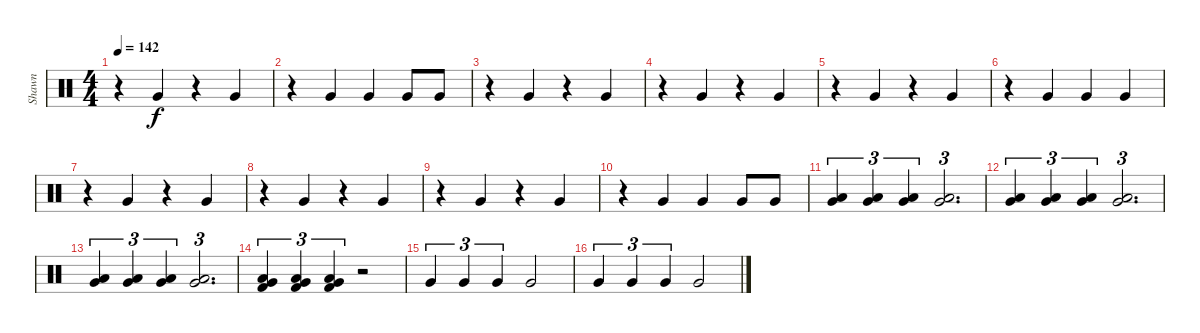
\track ("Shawn" "Shawn") {instrument percussion}
\staff {score}
\articulation defaults
\ts (4 4)
\tempo 142
\clef neutral
\ks c
r.4{dy f} "Very Low Tom (hit)".4 r.4 "Very Low Tom (hit)".4 |
r.4 "Very Low Tom (hit)".4 "Very Low Tom (hit)".4 "Very Low Tom (hit)".8 "Very Low Tom (hit)".8 |
r.4 "Very Low Tom (hit)".4 r.4 "Very Low Tom (hit)".4 |
r.4 "Very Low Tom (hit)".4 r.4 "Very Low Tom (hit)".4 |
r.4 "Very Low Tom (hit)".4 r.4 "Very Low Tom (hit)".4 |
r.4 "Very Low Tom (hit)".4 "Very Low Tom (hit)".4 "Very Low Tom (hit)".4 |
r.4 "Very Low Tom (hit)".4 r.4 "Very Low Tom (hit)".4 |
r.4 "Very Low Tom (hit)".4 r.4 "Very Low Tom (hit)".4 |
r.4 "Very Low Tom (hit)".4 r.4 "Very Low Tom (hit)".4 |
r.4 "Very Low Tom (hit)".4 "Very Low Tom (hit)".4 "Very Low Tom (hit)".8 "Very Low Tom (hit)".8 |
("Very Low Tom (hit)" "Low Floor Tom (hit)").4{tu (3 2)} ("Very Low Tom (hit)" "Low Floor Tom (hit)").4{tu (3 2)} ("Very Low Tom (hit)" "Low Floor Tom (hit)").4{tu (3 2)} ("Very Low Tom (hit)" "Low Floor Tom (hit)").2{d tu (3 2)} |
("Very Low Tom (hit)" "Low Floor Tom (hit)").4{tu (3 2)} ("Very Low Tom (hit)" "Low Floor Tom (hit)").4{tu (3 2)} ("Very Low Tom (hit)" "Low Floor Tom (hit)").4{tu (3 2)} ("Very Low Tom (hit)" "Low Floor Tom (hit)").2{d tu (3 2)} |
("Very Low Tom (hit)" "Low Floor Tom (hit)").4{tu (3 2)} ("Very Low Tom (hit)" "Low Floor Tom (hit)").4{tu (3 2)} ("Very Low Tom (hit)" "Low Floor Tom (hit)").4{tu (3 2)} ("Very Low Tom (hit)" "Low Floor Tom (hit)").2{d tu (3 2)} |
("Very Low Tom (hit)" "Low Floor Tom (hit)" "Kick (hit) 2").4{tu (3 2)} ("Very Low Tom (hit)" "Low Floor Tom (hit)" "Kick (hit) 2").4{tu (3 2)} ("Very Low Tom (hit)" "Low Floor Tom (hit)" "Kick (hit) 2").4{tu (3 2)} r.2 |
"Very Low Tom (hit)".4{tu (3 2)} "Very Low Tom (hit)".4{tu (3 2)} "Very Low Tom (hit)".4{tu (3 2)} "Very Low Tom (hit)".2 |
"Very Low Tom (hit)".4{tu (3 2)} "Very Low Tom (hit)".4{tu (3 2)} "Very Low Tom (hit)".4{tu (3 2)} "Very Low Tom (hit)".2
